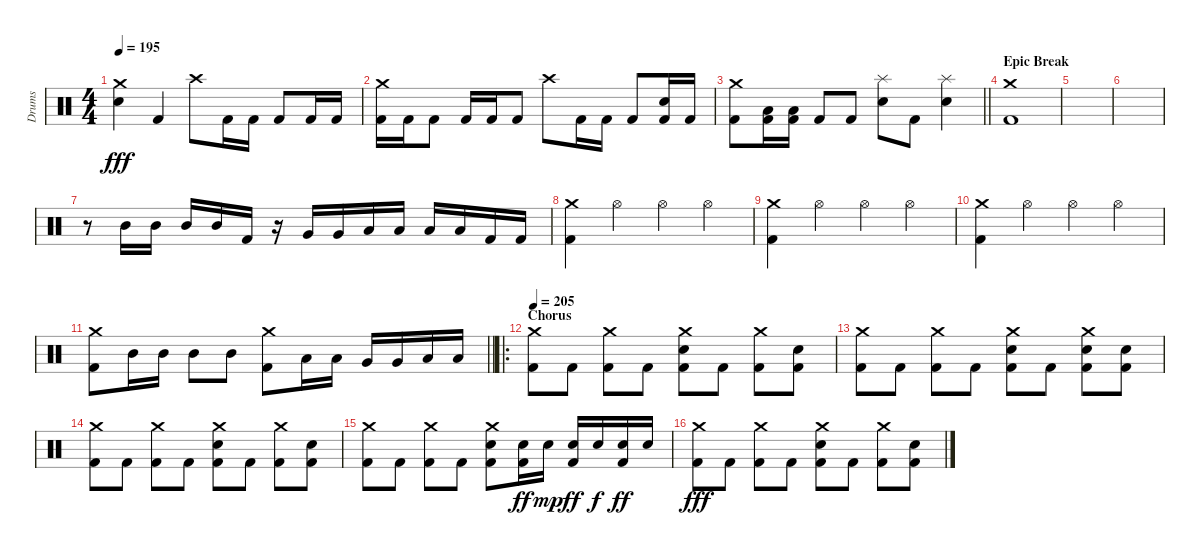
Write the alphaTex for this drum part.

\track ("Drums" "Drums") {instrument percussion}
\staff {score}
\articulation defaults
\ts (4 4)
\tempo 195
\clef neutral
\ks c
("Crash medium (hit)" "Electric Snare (hit)").4{dy fff} "Kick (hit) 2".4 "Crash high (hit)".8 "Kick (hit) 2".16 "Kick (hit) 2".16 "Kick (hit) 2".8 "Kick (hit) 2".16 "Kick (hit) 2".16 |
("Crash medium (hit)" "Kick (hit) 2").16 "Kick (hit) 2".16 "Kick (hit) 2".8 "Kick (hit) 2".16 "Kick (hit) 2".16 "Kick (hit) 2".8 "Crash high (hit)".8 "Kick (hit) 2".16 "Kick (hit) 2".16 "Kick (hit) 2".8 ("Electric Snare (hit)" "Kick (hit) 2").16 "Kick (hit) 2".16 |
\barLineRight lightlight
("Crash medium (hit)" "Kick (hit) 2").8 ("Low Floor Tom (hit)" "Kick (hit) 2").16 ("Low Floor Tom (hit)" "Kick (hit) 2").16 "Kick (hit) 2".8 "Kick (hit) 2".8 ("Splash (hit)" "Electric Snare (hit)").8 "Kick (hit) 2".8 ("Splash (hit)" "Electric Snare (hit)").4 |
\section ("" "Epic Break")
("Crash medium (hit)" "Kick (hit) 2").1 |
|
|
r.8 "Mid Tom (hit)".16 "Mid Tom (hit)".16 "Mid Tom (hit)".16 "Mid Tom (hit)".16 "Kick (hit) 2".16 r.16 "Very Low Tom (hit)".16 "Very Low Tom (hit)".16 "Low Tom (hit)".16 "Low Tom (hit)".16 "Low Tom (hit)".16 "Low Tom (hit)".16 "Kick (hit) 2".16 "Kick (hit) 2".16 |
("Crash medium (hit)" "Kick (hit) 2").4 "Hi-Hat (open)".4 "Hi-Hat (open)".4 "Hi-Hat (open)".4 |
("Crash medium (hit)" "Kick (hit) 2").4 "Hi-Hat (open)".4 "Hi-Hat (open)".4 "Hi-Hat (open)".4 |
("Crash medium (hit)" "Kick (hit) 2").4 "Hi-Hat (open)".4 "Hi-Hat (open)".4 "Hi-Hat (open)".4 |
\barLineRight lightlight
("Crash medium (hit)" "Kick (hit) 2").8 "Mid Tom (hit)".16 "Mid Tom (hit)".16 "Mid Tom (hit)".8 "Mid Tom (hit)".8 ("Crash medium (hit)" "Kick (hit) 2").8 "Low Tom (hit)".16 "Low Tom (hit)".16 "Very Low Tom (hit)".16 "Very Low Tom (hit)".16 "Low Floor Tom (hit)".16 "Low Floor Tom (hit)".16 |
\ro
\section ("" "Chorus")
\tempo 205
("Crash medium (hit)" "Kick (hit) 2").8 "Kick (hit) 2".8 ("Crash medium (hit)" "Kick (hit) 2").8 "Kick (hit) 2".8 ("Crash medium (hit)" "Electric Snare (hit)" "Kick (hit) 2").8 "Kick (hit) 2".8 ("Crash medium (hit)" "Kick (hit) 2").8 ("Electric Snare (hit)" "Kick (hit) 2").8 |
("Crash medium (hit)" "Kick (hit) 2").8 "Kick (hit) 2".8 ("Crash medium (hit)" "Kick (hit) 2").8 "Kick (hit) 2".8 ("Crash medium (hit)" "Electric Snare (hit)" "Kick (hit) 2").8 "Kick (hit) 2".8 ("Crash medium (hit)" "Electric Snare (hit)" "Kick (hit) 2").8 ("Electric Snare (hit)" "Kick (hit) 2").8 |
("Crash medium (hit)" "Kick (hit) 2").8 "Kick (hit) 2".8 ("Crash medium (hit)" "Kick (hit) 2").8 "Kick (hit) 2".8 ("Crash medium (hit)" "Electric Snare (hit)" "Kick (hit) 2").8 "Kick (hit) 2".8 ("Crash medium (hit)" "Kick (hit) 2").8 ("Electric Snare (hit)" "Kick (hit) 2").8 |
("Crash medium (hit)" "Kick (hit) 2").8 "Kick (hit) 2".8 ("Crash medium (hit)" "Kick (hit) 2").8 "Kick (hit) 2".8 ("Crash medium (hit)" "Electric Snare (hit)" "Kick (hit) 2").8 ("Electric Snare (hit)" "Kick (hit) 2").16{dy ff} "Electric Snare (hit)".16{dy mp} ("Electric Snare (hit)" "Kick (hit) 2").16{dy ff} "Electric Snare (hit)".16{dy f} ("Electric Snare (hit)" "Kick (hit) 2").16{dy ff} "Electric Snare (hit)".16 |
("Crash medium (hit)" "Kick (hit) 2").8{dy fff} "Kick (hit) 2".8 ("Crash medium (hit)" "Kick (hit) 2").8 "Kick (hit) 2".8 ("Crash medium (hit)" "Electric Snare (hit)" "Kick (hit) 2").8 "Kick (hit) 2".8 ("Crash medium (hit)" "Kick (hit) 2").8 ("Electric Snare (hit)" "Kick (hit) 2").8
